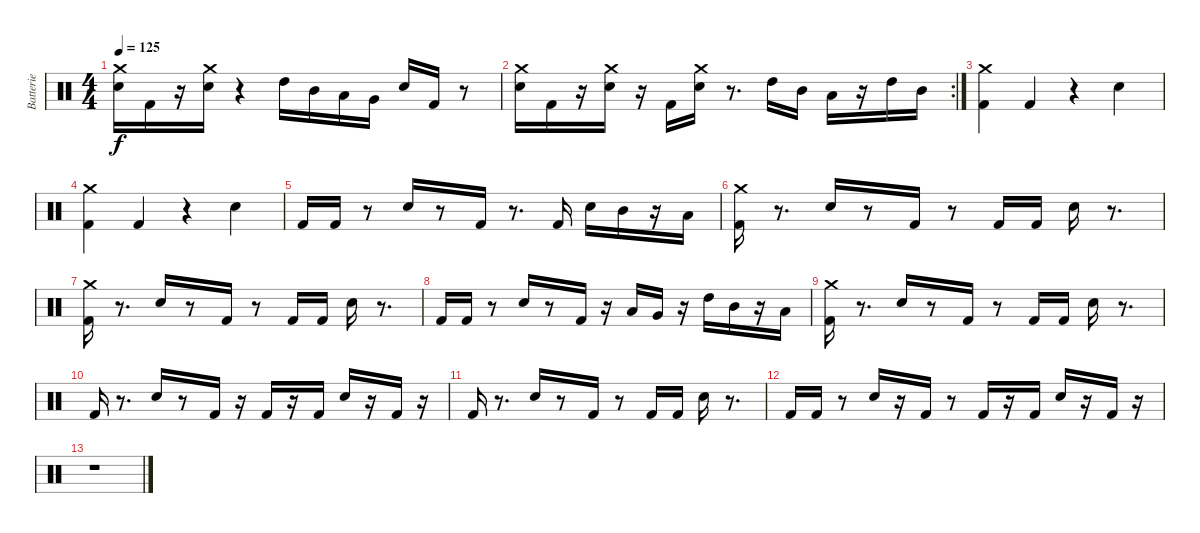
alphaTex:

\track ("Batterie" "Batterie") {instrument percussion}
\staff {score}
\articulation defaults
\ts (4 4)
\tempo 125
\clef neutral
\ks c
("Crash medium (hit)" "Snare (hit) 2").16{dy f} "Kick (hit) 2".16 r.16 ("Crash medium (hit)" "Snare (hit) 2").16 r.4 "High Tom (hit)".16 "Mid Tom (hit)".16 "Low Tom (hit)".16 "Very Low Tom (hit)".16 "Snare (hit) 2".16 "Kick (hit) 2".16 r.8 |
\rc 2
("Crash medium (hit)" "Snare (hit) 2").16 "Kick (hit) 2".16 r.16 ("Crash medium (hit)" "Snare (hit) 2").16 r.16 "Kick (hit) 2".16 ("Crash medium (hit)" "Snare (hit) 2").16 r.8{d} "High Tom (hit)".16 "Mid Tom (hit)".16 "Low Tom (hit)".16 r.16 "High Tom (hit)".16 "Mid Tom (hit)".16 |
("Crash medium (hit)" "Kick (hit) 2").4 "Kick (hit) 2".4 r.4 "Snare (hit) 2".4 |
("Crash medium (hit)" "Kick (hit) 2").4 "Kick (hit) 2".4 r.4 "Snare (hit) 2".4 |
"Kick (hit) 2".16 "Kick (hit) 2".16 r.8 "Snare (hit) 2".16 r.8 "Kick (hit) 2".16 r.8{d} "Kick (hit) 2".16 "Snare (hit) 2".16 "Mid Tom (hit)".16 r.16 "Low Tom (hit)".16 |
("Crash medium (hit)" "Kick (hit) 2").16 r.8{d} "Snare (hit) 2".16 r.8 "Kick (hit) 2".16 r.8 "Kick (hit) 2".16 "Kick (hit) 2".16 "Snare (hit) 2".16 r.8{d} |
("Crash medium (hit)" "Kick (hit) 2").16 r.8{d} "Snare (hit) 2".16 r.8 "Kick (hit) 2".16 r.8 "Kick (hit) 2".16 "Kick (hit) 2".16 "Snare (hit) 2".16 r.8{d} |
"Kick (hit) 2".16 "Kick (hit) 2".16 r.8 "Snare (hit) 2".16 r.8 "Kick (hit) 2".16 r.16 "Low Tom (hit)".16 "Very Low Tom (hit)".16 r.16 "High Tom (hit)".16 "Mid Tom (hit)".16 r.16 "Low Tom (hit)".16 |
("Crash medium (hit)" "Kick (hit) 2").16{volume 16} r.8{d} "Snare (hit) 2".16{volume 15} r.8 "Kick (hit) 2".16{volume 14} r.8 "Kick (hit) 2".16{volume 13} "Kick (hit) 2".16{volume 13} "Snare (hit) 2".16{volume 13} r.8{d} |
"Kick (hit) 2".16{volume 12} r.8{d} "Snare (hit) 2".16{volume 11} r.8 "Kick (hit) 2".16{volume 10} r.16 "Kick (hit) 2".16{volume 10} r.16 "Kick (hit) 2".16{volume 9} "Snare (hit) 2".16{volume 9} r.16 "Kick (hit) 2".16{volume 8} r.16 |
"Kick (hit) 2".16{volume 8} r.8{d} "Snare (hit) 2".16{volume 7} r.8 "Kick (hit) 2".16{volume 6} r.8 "Kick (hit) 2".16{volume 6} "Kick (hit) 2".16{volume 5} "Snare (hit) 2".16{volume 5} r.8{d} |
"Kick (hit) 2".16{volume 4} "Kick (hit) 2".16{volume 4} r.8 "Snare (hit) 2".16{volume 3} r.16 "Kick (hit) 2".16{volume 2} r.8 "Kick (hit) 2".16{volume 2} r.16 "Kick (hit) 2".16{volume 1} "Snare (hit) 2".16{volume 1} r.16 "Kick (hit) 2".16{volume 1} r.16 |
r.1
